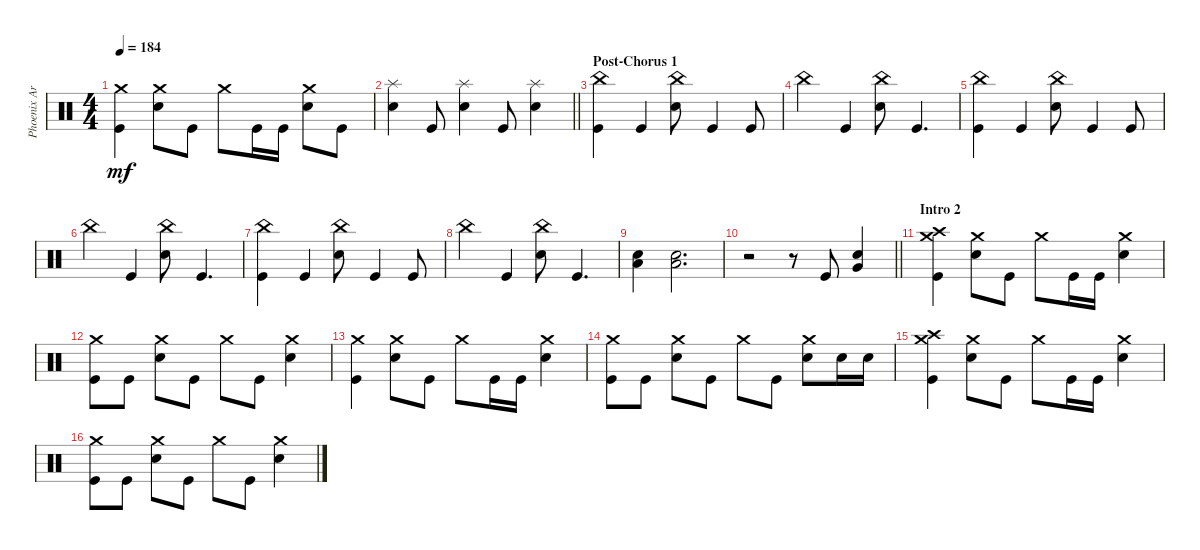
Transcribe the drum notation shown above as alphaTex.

\track ("Phoenix Arn-Horn (Drums)" "Phoenix Ar") {instrument percussion}
\staff {score}
\articulation defaults
\ts (4 4)
\tempo 184
\clef neutral
\ks c
("Kick (hit)" "Crash medium (hit)").4{dy mf} ("Snare (hit) 2" "Crash medium (hit)").8 "Kick (hit)".8 "Crash medium (hit)".8 "Kick (hit)".16 "Kick (hit)".16 ("Snare (hit) 2" "Crash medium (hit)").8 "Kick (hit)".8 |
\barLineRight lightlight
("Snare (hit) 2" "Splash (hit)").4 "Kick (hit)".8 ("Snare (hit) 2" "Splash (hit)").4 "Kick (hit)".8 ("Snare (hit) 2" "Splash (hit)").4 |
\section ("" "Post-Chorus 1")
("Kick (hit)" "China (hit)").4 "Kick (hit)".4 ("Snare (hit) 2" "China (hit)").8 "Kick (hit)".4 "Kick (hit)".8 |
"China (hit)".4 "Kick (hit)".4 ("Snare (hit) 2" "China (hit)").8 "Kick (hit)".4{d} |
("Kick (hit)" "China (hit)").4 "Kick (hit)".4 ("Snare (hit) 2" "China (hit)").8 "Kick (hit)".4 "Kick (hit)".8 |
"China (hit)".4 "Kick (hit)".4 ("Snare (hit) 2" "China (hit)").8 "Kick (hit)".4{d} |
("Kick (hit)" "China (hit)").4 "Kick (hit)".4 ("Snare (hit) 2" "China (hit)").8 "Kick (hit)".4 "Kick (hit)".8 |
"China (hit)".4 "Kick (hit)".4 ("Snare (hit) 2" "China (hit)").8 "Kick (hit)".4{d} |
("Snare (hit) 2" "Low Floor Tom (hit)").4 ("Snare (hit) 2" "Low Floor Tom (hit)").2{d} |
\barLineRight lightlight
r.2 r.8 "Kick (hit)".8 ("Snare (hit) 2" "Very Low Tom (hit)").4 |
\section ("" "Intro 2")
("Kick (hit)" "Crash medium (hit)" "Crash high (hit)").4 ("Snare (hit) 2" "Crash medium (hit)").8 "Kick (hit)".8 "Crash medium (hit)".8 "Kick (hit)".16 "Kick (hit)".16 ("Snare (hit) 2" "Crash medium (hit)").4 |
("Kick (hit)" "Crash medium (hit)").8 "Kick (hit)".8 ("Snare (hit) 2" "Crash medium (hit)").8 "Kick (hit)".8 "Crash medium (hit)".8 "Kick (hit)".8 ("Snare (hit) 2" "Crash medium (hit)").4 |
("Kick (hit)" "Crash medium (hit)").4 ("Snare (hit) 2" "Crash medium (hit)").8 "Kick (hit)".8 "Crash medium (hit)".8 "Kick (hit)".16 "Kick (hit)".16 ("Snare (hit) 2" "Crash medium (hit)").4 |
("Kick (hit)" "Crash medium (hit)").8 "Kick (hit)".8 ("Snare (hit) 2" "Crash medium (hit)").8 "Kick (hit)".8 "Crash medium (hit)".8 "Kick (hit)".8 ("Snare (hit) 2" "Crash medium (hit)").8 "Snare (hit) 2".16 "Snare (hit) 2".16 |
("Kick (hit)" "Crash medium (hit)" "Crash high (hit)").4 ("Snare (hit) 2" "Crash medium (hit)").8 "Kick (hit)".8 "Crash medium (hit)".8 "Kick (hit)".16 "Kick (hit)".16 ("Snare (hit) 2" "Crash medium (hit)").4 |
("Kick (hit)" "Crash medium (hit)").8 "Kick (hit)".8 ("Snare (hit) 2" "Crash medium (hit)").8 "Kick (hit)".8 "Crash medium (hit)".8 "Kick (hit)".8 ("Snare (hit) 2" "Crash medium (hit)").4
